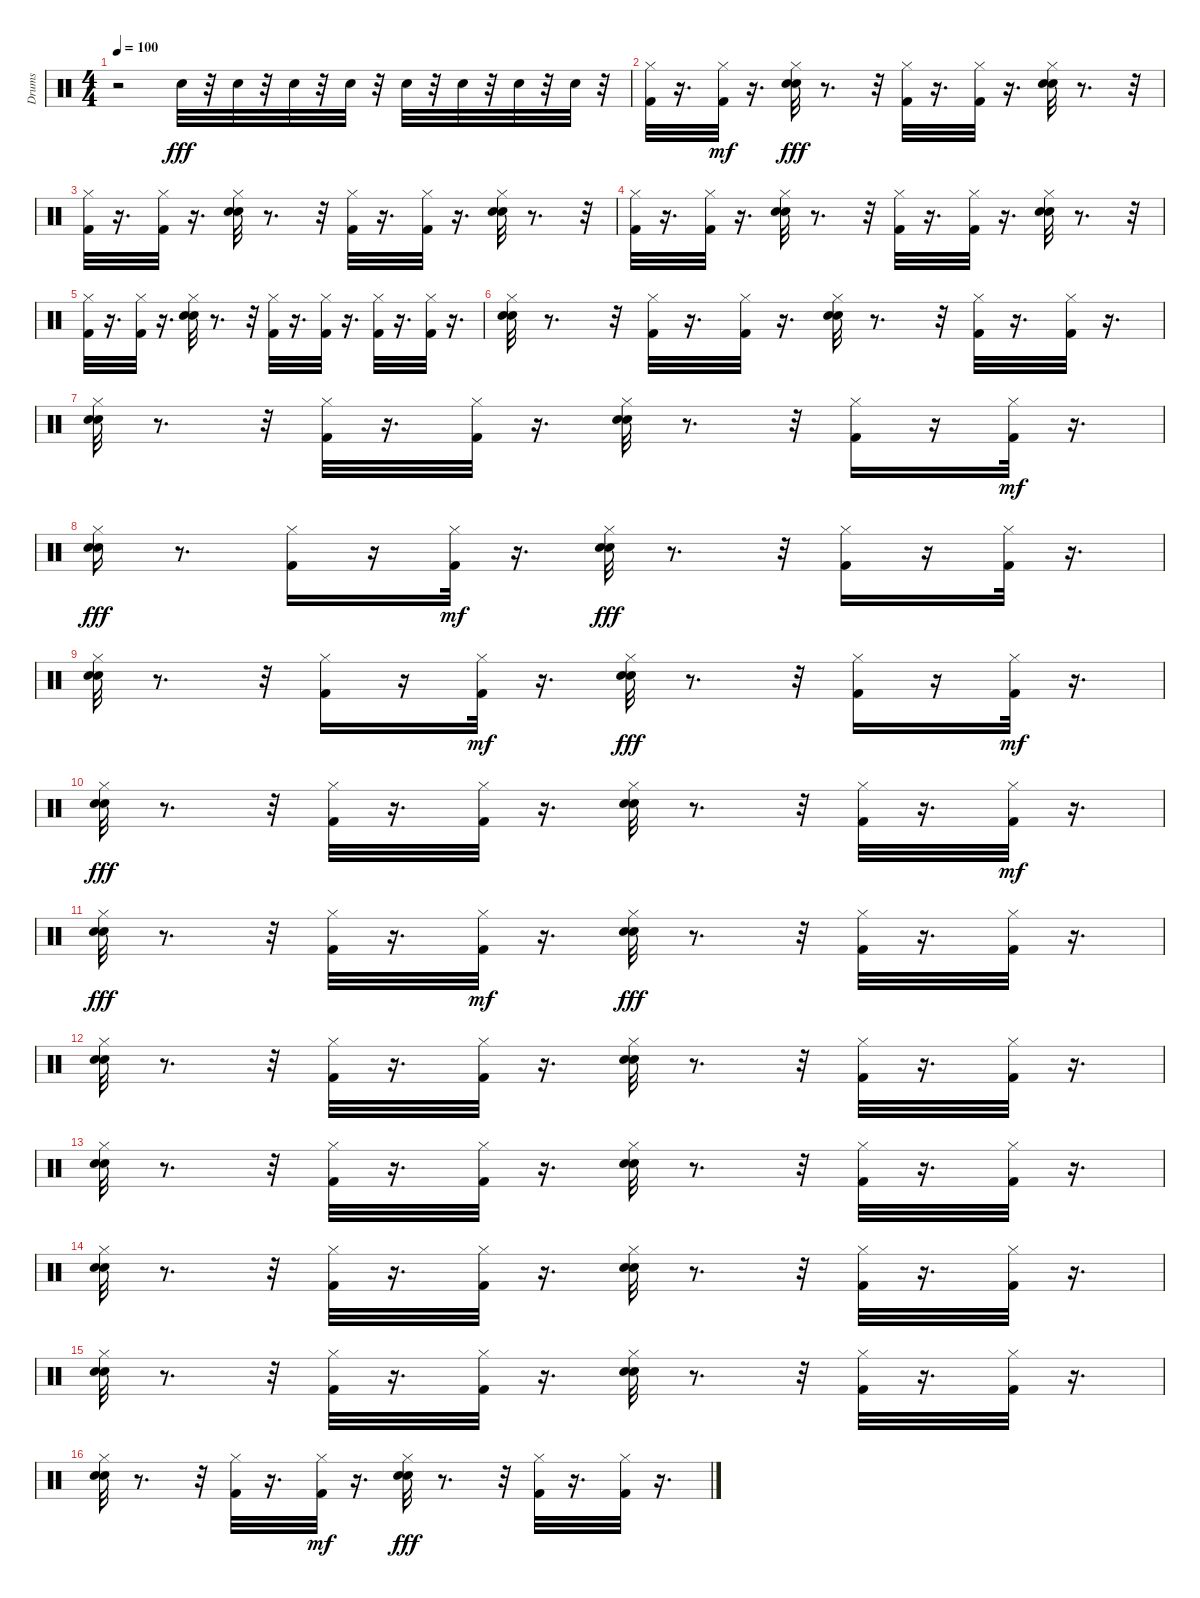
\track ("Drums" "Drums") {instrument percussion}
\staff {score}
\articulation defaults
\ts (4 4)
\tempo 100
\clef neutral
\ks c
r.2{dy fff} "Snare (hit) 2".32 r.32 "Snare (hit) 2".32 r.32 "Snare (hit) 2".32 r.32 "Snare (hit) 2".32 r.32 "Snare (hit) 2".32 r.32 "Snare (hit) 2".32 r.32 "Snare (hit) 2".32 r.32 "Snare (hit) 2".32 r.32 |
("Kick (hit) 2" "Hi-Hat (closed)").32 r.16{d} ("Kick (hit) 2" "Hi-Hat (closed)").32{dy mf} r.16{d} ("Hand Clap (hit)" "Hi-Hat (closed)" "Snare (hit) 2").32{dy fff} r.8{d} r.32 ("Hi-Hat (closed)" "Kick (hit) 2").32 r.16{d} ("Hi-Hat (closed)" "Kick (hit) 2").32 r.16{d} ("Snare (hit) 2" "Hand Clap (hit)" "Hi-Hat (closed)").32 r.8{d} r.32 |
("Kick (hit) 2" "Hi-Hat (closed)").32 r.16{d} ("Hi-Hat (closed)" "Kick (hit) 2").32 r.16{d} ("Hand Clap (hit)" "Hi-Hat (closed)" "Snare (hit) 2").32 r.8{d} r.32 ("Kick (hit) 2" "Hi-Hat (closed)").32 r.16{d} ("Hi-Hat (closed)" "Kick (hit) 2").32 r.16{d} ("Snare (hit) 2" "Hand Clap (hit)" "Hi-Hat (closed)").32 r.8{d} r.32 |
("Hi-Hat (closed)" "Kick (hit) 2").32 r.16{d} ("Hi-Hat (closed)" "Kick (hit) 2").32 r.16{d} ("Snare (hit) 2" "Hand Clap (hit)" "Hi-Hat (closed)").32 r.8{d} r.32 ("Hi-Hat (closed)" "Kick (hit) 2").32 r.16{d} ("Kick (hit) 2" "Hi-Hat (closed)").32 r.16{d} ("Snare (hit) 2" "Hand Clap (hit)" "Hi-Hat (closed)").32 r.8{d} r.32 |
("Kick (hit) 2" "Hi-Hat (closed)").32 r.16{d} ("Hi-Hat (closed)" "Kick (hit) 2").32 r.16{d} ("Snare (hit) 2" "Hi-Hat (closed)" "Hand Clap (hit)").32 r.8{d} r.32 ("Kick (hit) 2" "Hi-Hat (closed)").32 r.16{d} ("Hi-Hat (closed)" "Kick (hit) 2").32 r.16{d} ("Hi-Hat (closed)" "Kick (hit) 2").32 r.16{d} ("Hi-Hat (closed)" "Kick (hit) 2").32 r.16{d} |
("Hi-Hat (closed)" "Hand Clap (hit)" "Snare (hit) 2").32 r.8{d} r.32 ("Hi-Hat (closed)" "Kick (hit) 2").32 r.16{d} ("Hi-Hat (closed)" "Kick (hit) 2").32 r.16{d} ("Hand Clap (hit)" "Snare (hit) 2" "Hi-Hat (closed)").32 r.8{d} r.32 ("Kick (hit) 2" "Hi-Hat (closed)").32 r.16{d} ("Kick (hit) 2" "Hi-Hat (closed)").32 r.16{d} |
("Hand Clap (hit)" "Hi-Hat (closed)" "Snare (hit) 2").32 r.8{d} r.32 ("Kick (hit) 2" "Hi-Hat (closed)").32 r.16{d} ("Hi-Hat (closed)" "Kick (hit) 2").32 r.16{d} ("Snare (hit) 2" "Hi-Hat (closed)" "Hand Clap (hit)").32 r.8{d} r.32 ("Kick (hit) 2" "Hi-Hat (closed)").16 r.16 ("Kick (hit) 2" "Hi-Hat (closed)").32{dy mf} r.16{d} |
("Hi-Hat (closed)" "Snare (hit) 2" "Hand Clap (hit)").16{dy fff} r.8{d} ("Kick (hit) 2" "Hi-Hat (closed)").16 r.16 ("Kick (hit) 2" "Hi-Hat (closed)").32{dy mf} r.16{d} ("Hi-Hat (closed)" "Hand Clap (hit)" "Snare (hit) 2").32{dy fff} r.8{d} r.32 ("Hi-Hat (closed)" "Kick (hit) 2").16 r.16 ("Hi-Hat (closed)" "Kick (hit) 2").32 r.16{d} |
("Hand Clap (hit)" "Hi-Hat (closed)" "Snare (hit) 2").32 r.8{d} r.32 ("Hi-Hat (closed)" "Kick (hit) 2").16 r.16 ("Kick (hit) 2" "Hi-Hat (closed)").32{dy mf} r.16{d} ("Hi-Hat (closed)" "Snare (hit) 2" "Hand Clap (hit)").32{dy fff} r.8{d} r.32 ("Kick (hit) 2" "Hi-Hat (closed)").16 r.16 ("Kick (hit) 2" "Hi-Hat (closed)").32{dy mf} r.16{d} |
("Hi-Hat (closed)" "Snare (hit) 2" "Hand Clap (hit)").32{dy fff} r.8{d} r.32 ("Kick (hit) 2" "Hi-Hat (closed)").32 r.16{d} ("Hi-Hat (closed)" "Kick (hit) 2").32 r.16{d} ("Hand Clap (hit)" "Hi-Hat (closed)" "Snare (hit) 2").32 r.8{d} r.32 ("Kick (hit) 2" "Hi-Hat (closed)").32 r.16{d} ("Kick (hit) 2" "Hi-Hat (closed)").32{dy mf} r.16{d} |
("Hi-Hat (closed)" "Hand Clap (hit)" "Snare (hit) 2").32{dy fff} r.8{d} r.32 ("Hi-Hat (closed)" "Kick (hit) 2").32 r.16{d} ("Kick (hit) 2" "Hi-Hat (closed)").32{dy mf} r.16{d} ("Snare (hit) 2" "Hi-Hat (closed)" "Hand Clap (hit)").32{dy fff} r.8{d} r.32 ("Hi-Hat (closed)" "Kick (hit) 2").32 r.16{d} ("Hi-Hat (closed)" "Kick (hit) 2").32 r.16{d} |
("Hand Clap (hit)" "Snare (hit) 2" "Hi-Hat (closed)").32 r.8{d} r.32 ("Kick (hit) 2" "Hi-Hat (closed)").32 r.16{d} ("Hi-Hat (closed)" "Kick (hit) 2").32 r.16{d} ("Hand Clap (hit)" "Snare (hit) 2" "Hi-Hat (closed)").32 r.8{d} r.32 ("Kick (hit) 2" "Hi-Hat (closed)").32 r.16{d} ("Kick (hit) 2" "Hi-Hat (closed)").32 r.16{d} |
("Snare (hit) 2" "Hi-Hat (closed)" "Hand Clap (hit)").32 r.8{d} r.32 ("Hi-Hat (closed)" "Kick (hit) 2").32 r.16{d} ("Hi-Hat (closed)" "Kick (hit) 2").32 r.16{d} ("Hi-Hat (closed)" "Hand Clap (hit)" "Snare (hit) 2").32 r.8{d} r.32 ("Hi-Hat (closed)" "Kick (hit) 2").32 r.16{d} ("Kick (hit) 2" "Hi-Hat (closed)").32 r.16{d} |
("Hand Clap (hit)" "Snare (hit) 2" "Hi-Hat (closed)").32 r.8{d} r.32 ("Hi-Hat (closed)" "Kick (hit) 2").32 r.16{d} ("Kick (hit) 2" "Hi-Hat (closed)").32 r.16{d} ("Hi-Hat (closed)" "Snare (hit) 2" "Hand Clap (hit)").32 r.8{d} r.32 ("Kick (hit) 2" "Hi-Hat (closed)").32 r.16{d} ("Hi-Hat (closed)" "Kick (hit) 2").32 r.16{d} |
("Snare (hit) 2" "Hand Clap (hit)" "Hi-Hat (closed)").32 r.8{d} r.32 ("Kick (hit) 2" "Hi-Hat (closed)").32 r.16{d} ("Hi-Hat (closed)" "Kick (hit) 2").32 r.16{d} ("Hi-Hat (closed)" "Hand Clap (hit)" "Snare (hit) 2").32 r.8{d} r.32 ("Kick (hit) 2" "Hi-Hat (closed)").32 r.16{d} ("Hi-Hat (closed)" "Kick (hit) 2").32 r.16{d} |
("Snare (hit) 2" "Hi-Hat (closed)" "Hand Clap (hit)").32 r.8{d} r.32 ("Hi-Hat (closed)" "Kick (hit) 2").32 r.16{d} ("Kick (hit) 2" "Hi-Hat (closed)").32{dy mf} r.16{d} ("Snare (hit) 2" "Hand Clap (hit)" "Hi-Hat (closed)").32{dy fff} r.8{d} r.32 ("Hi-Hat (closed)" "Kick (hit) 2").32 r.16{d} ("Kick (hit) 2" "Hi-Hat (closed)").32 r.16{d}
